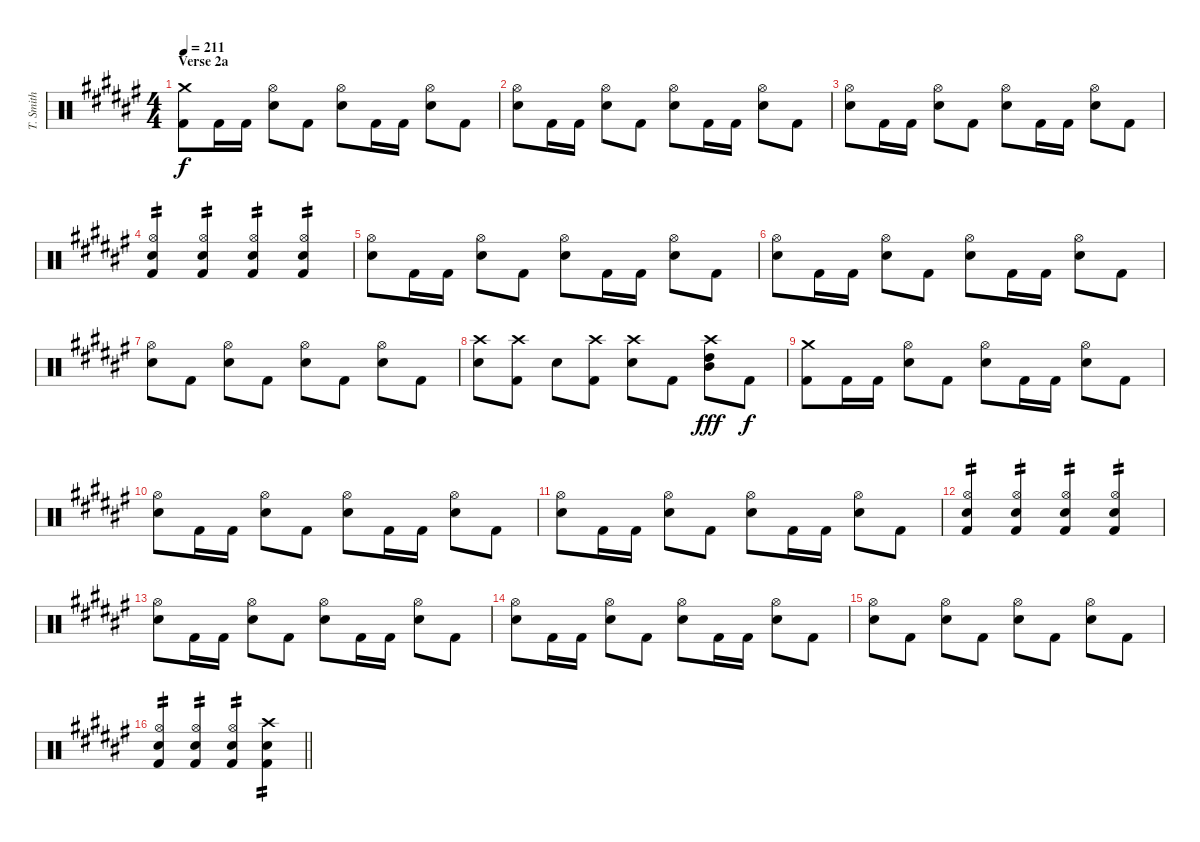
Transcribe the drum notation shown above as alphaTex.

\track ("T. Smith" "T. Smith") {instrument percussion}
\staff {score}
\articulation defaults
\ts (4 4)
\section ("" "Verse 2a")
\tempo 211
\clef neutral
\ks d#minor
("Crash medium (hit)" "Kick (hit) 2").8{dy f volume 13 balance 8} "Kick (hit) 2".16 "Kick (hit) 2".16 ("Hi-Hat (open)" "Electric Snare (hit)").8 "Kick (hit) 2".8 ("Hi-Hat (open)" "Electric Snare (hit)").8 "Kick (hit) 2".16 "Kick (hit) 2".16 ("Hi-Hat (open)" "Electric Snare (hit)").8 "Kick (hit) 2".8 |
("Hi-Hat (open)" "Electric Snare (hit)").8 "Kick (hit) 2".16 "Kick (hit) 2".16 ("Hi-Hat (open)" "Electric Snare (hit)").8 "Kick (hit) 2".8 ("Hi-Hat (open)" "Electric Snare (hit)").8 "Kick (hit) 2".16 "Kick (hit) 2".16 ("Hi-Hat (open)" "Electric Snare (hit)").8 "Kick (hit) 2".8 |
("Hi-Hat (open)" "Electric Snare (hit)").8 "Kick (hit) 2".16 "Kick (hit) 2".16 ("Hi-Hat (open)" "Electric Snare (hit)").8 "Kick (hit) 2".8 ("Hi-Hat (open)" "Electric Snare (hit)").8 "Kick (hit) 2".16 "Kick (hit) 2".16 ("Hi-Hat (open)" "Electric Snare (hit)").8 "Kick (hit) 2".8 |
("Hi-Hat (open)" "Electric Snare (hit)" "Kick (hit) 2").4{tp 2} ("Hi-Hat (open)" "Electric Snare (hit)" "Kick (hit) 2").4{tp 2} ("Hi-Hat (open)" "Electric Snare (hit)" "Kick (hit) 2").4{tp 2} ("Hi-Hat (open)" "Electric Snare (hit)" "Kick (hit) 2").4{tp 2} |
("Hi-Hat (open)" "Electric Snare (hit)").8 "Kick (hit) 2".16 "Kick (hit) 2".16 ("Hi-Hat (open)" "Electric Snare (hit)").8 "Kick (hit) 2".8 ("Hi-Hat (open)" "Electric Snare (hit)").8 "Kick (hit) 2".16 "Kick (hit) 2".16 ("Hi-Hat (open)" "Electric Snare (hit)").8 "Kick (hit) 2".8 |
("Hi-Hat (open)" "Electric Snare (hit)").8 "Kick (hit) 2".16 "Kick (hit) 2".16 ("Hi-Hat (open)" "Electric Snare (hit)").8 "Kick (hit) 2".8 ("Hi-Hat (open)" "Electric Snare (hit)").8 "Kick (hit) 2".16 "Kick (hit) 2".16 ("Hi-Hat (open)" "Electric Snare (hit)").8 "Kick (hit) 2".8 |
("Hi-Hat (open)" "Electric Snare (hit)").8 "Kick (hit) 2".8 ("Hi-Hat (open)" "Electric Snare (hit)").8 "Kick (hit) 2".8 ("Hi-Hat (open)" "Electric Snare (hit)").8 "Kick (hit) 2".8 ("Hi-Hat (open)" "Electric Snare (hit)").8 "Kick (hit) 2".8 |
("Crash high (hit)" "Electric Snare (hit)").8 ("Crash high (hit)" "Kick (hit) 2").8 "Electric Snare (hit)".8 ("Crash high (hit)" "Kick (hit) 2").8 ("Crash high (hit)" "Electric Snare (hit)").8 "Kick (hit) 2".8 ("Crash high (hit)" "Mid Tom (hit)" "High Tom (hit)").8{dy fff} "Kick (hit) 2".8{dy f} |
("Crash medium (hit)" "Kick (hit) 2").8 "Kick (hit) 2".16 "Kick (hit) 2".16 ("Hi-Hat (open)" "Electric Snare (hit)").8 "Kick (hit) 2".8 ("Hi-Hat (open)" "Electric Snare (hit)").8 "Kick (hit) 2".16 "Kick (hit) 2".16 ("Hi-Hat (open)" "Electric Snare (hit)").8 "Kick (hit) 2".8 |
("Hi-Hat (open)" "Electric Snare (hit)").8 "Kick (hit) 2".16 "Kick (hit) 2".16 ("Hi-Hat (open)" "Electric Snare (hit)").8 "Kick (hit) 2".8 ("Hi-Hat (open)" "Electric Snare (hit)").8 "Kick (hit) 2".16 "Kick (hit) 2".16 ("Hi-Hat (open)" "Electric Snare (hit)").8 "Kick (hit) 2".8 |
("Hi-Hat (open)" "Electric Snare (hit)").8 "Kick (hit) 2".16 "Kick (hit) 2".16 ("Hi-Hat (open)" "Electric Snare (hit)").8 "Kick (hit) 2".8 ("Hi-Hat (open)" "Electric Snare (hit)").8 "Kick (hit) 2".16 "Kick (hit) 2".16 ("Hi-Hat (open)" "Electric Snare (hit)").8 "Kick (hit) 2".8 |
("Hi-Hat (open)" "Electric Snare (hit)" "Kick (hit) 2").4{tp 2} ("Hi-Hat (open)" "Electric Snare (hit)" "Kick (hit) 2").4{tp 2} ("Hi-Hat (open)" "Electric Snare (hit)" "Kick (hit) 2").4{tp 2} ("Hi-Hat (open)" "Electric Snare (hit)" "Kick (hit) 2").4{tp 2} |
("Hi-Hat (open)" "Electric Snare (hit)").8 "Kick (hit) 2".16 "Kick (hit) 2".16 ("Hi-Hat (open)" "Electric Snare (hit)").8 "Kick (hit) 2".8 ("Hi-Hat (open)" "Electric Snare (hit)").8 "Kick (hit) 2".16 "Kick (hit) 2".16 ("Hi-Hat (open)" "Electric Snare (hit)").8 "Kick (hit) 2".8 |
("Hi-Hat (open)" "Electric Snare (hit)").8 "Kick (hit) 2".16 "Kick (hit) 2".16 ("Hi-Hat (open)" "Electric Snare (hit)").8 "Kick (hit) 2".8 ("Hi-Hat (open)" "Electric Snare (hit)").8 "Kick (hit) 2".16 "Kick (hit) 2".16 ("Hi-Hat (open)" "Electric Snare (hit)").8 "Kick (hit) 2".8 |
("Hi-Hat (open)" "Electric Snare (hit)").8 "Kick (hit) 2".8 ("Hi-Hat (open)" "Electric Snare (hit)").8 "Kick (hit) 2".8 ("Hi-Hat (open)" "Electric Snare (hit)").8 "Kick (hit) 2".8 ("Hi-Hat (open)" "Electric Snare (hit)").8 "Kick (hit) 2".8 |
\barLineRight lightlight
("Hi-Hat (open)" "Electric Snare (hit)" "Kick (hit) 2").4{tp 2} ("Hi-Hat (open)" "Electric Snare (hit)" "Kick (hit) 2").4{tp 2} ("Hi-Hat (open)" "Electric Snare (hit)" "Kick (hit) 2").4{tp 2} ("Crash high (hit)" "Electric Snare (hit)" "Kick (hit) 2").4{tp 2}
